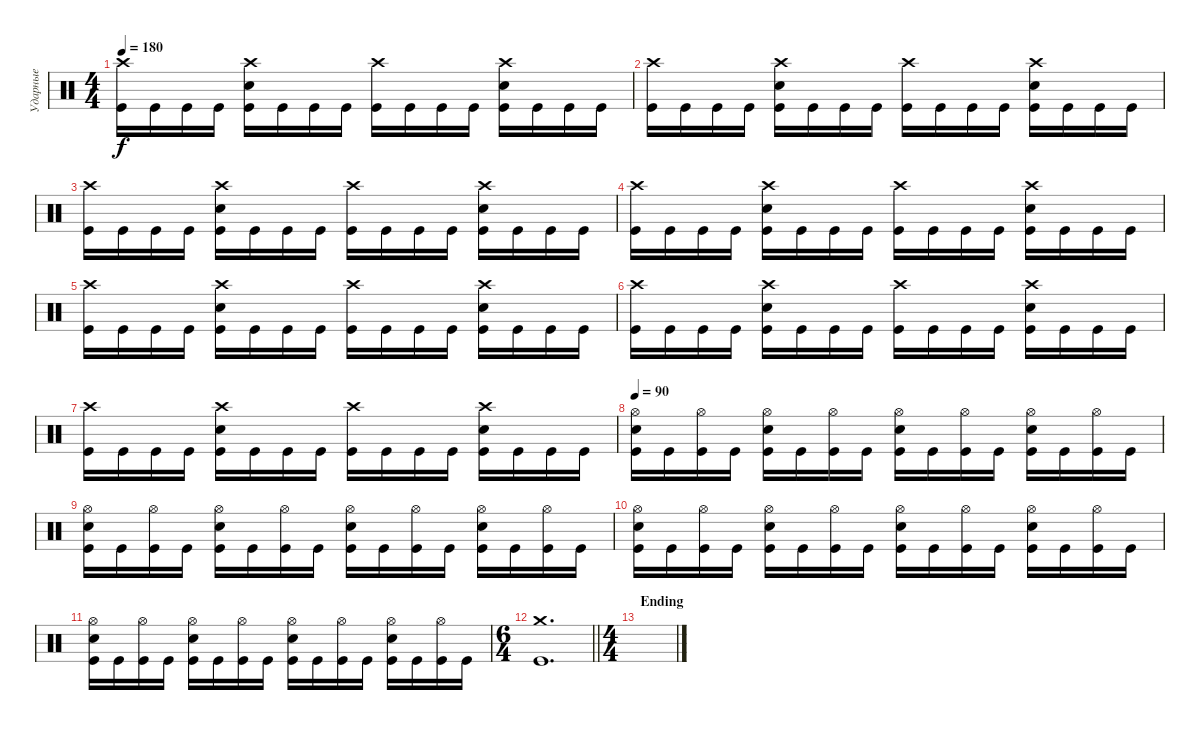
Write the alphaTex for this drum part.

\track ("Ударные" "Ударные") {instrument percussion}
\staff {score}
\articulation defaults
\ts (4 4)
\tempo 180
\clef neutral
\ks c
("Crash high (hit)" "Kick (hit)").16{dy f} "Kick (hit)".16 "Kick (hit)".16 "Kick (hit)".16 ("Crash high (hit)" "Electric Snare (hit)" "Kick (hit)").16 "Kick (hit)".16 "Kick (hit)".16 "Kick (hit)".16 ("Crash high (hit)" "Kick (hit)").16 "Kick (hit)".16 "Kick (hit)".16 "Kick (hit)".16 ("Crash high (hit)" "Electric Snare (hit)" "Kick (hit)").16 "Kick (hit)".16 "Kick (hit)".16 "Kick (hit)".16 |
("Crash high (hit)" "Kick (hit)").16 "Kick (hit)".16 "Kick (hit)".16 "Kick (hit)".16 ("Crash high (hit)" "Electric Snare (hit)" "Kick (hit)").16 "Kick (hit)".16 "Kick (hit)".16 "Kick (hit)".16 ("Crash high (hit)" "Kick (hit)").16 "Kick (hit)".16 "Kick (hit)".16 "Kick (hit)".16 ("Crash high (hit)" "Electric Snare (hit)" "Kick (hit)").16 "Kick (hit)".16 "Kick (hit)".16 "Kick (hit)".16 |
("Crash high (hit)" "Kick (hit)").16 "Kick (hit)".16 "Kick (hit)".16 "Kick (hit)".16 ("Crash high (hit)" "Electric Snare (hit)" "Kick (hit)").16 "Kick (hit)".16 "Kick (hit)".16 "Kick (hit)".16 ("Crash high (hit)" "Kick (hit)").16 "Kick (hit)".16 "Kick (hit)".16 "Kick (hit)".16 ("Crash high (hit)" "Electric Snare (hit)" "Kick (hit)").16 "Kick (hit)".16 "Kick (hit)".16 "Kick (hit)".16 |
("Crash high (hit)" "Kick (hit)").16 "Kick (hit)".16 "Kick (hit)".16 "Kick (hit)".16 ("Crash high (hit)" "Electric Snare (hit)" "Kick (hit)").16 "Kick (hit)".16 "Kick (hit)".16 "Kick (hit)".16 ("Crash high (hit)" "Kick (hit)").16 "Kick (hit)".16 "Kick (hit)".16 "Kick (hit)".16 ("Crash high (hit)" "Electric Snare (hit)" "Kick (hit)").16 "Kick (hit)".16 "Kick (hit)".16 "Kick (hit)".16 |
("Crash high (hit)" "Kick (hit)").16 "Kick (hit)".16 "Kick (hit)".16 "Kick (hit)".16 ("Crash high (hit)" "Electric Snare (hit)" "Kick (hit)").16 "Kick (hit)".16 "Kick (hit)".16 "Kick (hit)".16 ("Crash high (hit)" "Kick (hit)").16 "Kick (hit)".16 "Kick (hit)".16 "Kick (hit)".16 ("Crash high (hit)" "Electric Snare (hit)" "Kick (hit)").16 "Kick (hit)".16 "Kick (hit)".16 "Kick (hit)".16 |
("Crash high (hit)" "Kick (hit)").16 "Kick (hit)".16 "Kick (hit)".16 "Kick (hit)".16 ("Crash high (hit)" "Electric Snare (hit)" "Kick (hit)").16 "Kick (hit)".16 "Kick (hit)".16 "Kick (hit)".16 ("Crash high (hit)" "Kick (hit)").16 "Kick (hit)".16 "Kick (hit)".16 "Kick (hit)".16 ("Crash high (hit)" "Electric Snare (hit)" "Kick (hit)").16 "Kick (hit)".16 "Kick (hit)".16 "Kick (hit)".16 |
("Crash high (hit)" "Kick (hit)").16 "Kick (hit)".16 "Kick (hit)".16 "Kick (hit)".16 ("Crash high (hit)" "Electric Snare (hit)" "Kick (hit)").16 "Kick (hit)".16 "Kick (hit)".16 "Kick (hit)".16 ("Crash high (hit)" "Kick (hit)").16 "Kick (hit)".16 "Kick (hit)".16 "Kick (hit)".16 ("Crash high (hit)" "Electric Snare (hit)" "Kick (hit)").16 "Kick (hit)".16 "Kick (hit)".16 "Kick (hit)".16 |
\tempo 90
("Hi-Hat (open)" "Electric Snare (hit)" "Kick (hit)").16 "Kick (hit)".16 ("Hi-Hat (open)" "Kick (hit)").16 "Kick (hit)".16 ("Hi-Hat (open)" "Electric Snare (hit)" "Kick (hit)").16 "Kick (hit)".16 ("Hi-Hat (open)" "Kick (hit)").16 "Kick (hit)".16 ("Hi-Hat (open)" "Electric Snare (hit)" "Kick (hit)").16 "Kick (hit)".16 ("Hi-Hat (open)" "Kick (hit)").16 "Kick (hit)".16 ("Hi-Hat (open)" "Electric Snare (hit)" "Kick (hit)").16 "Kick (hit)".16 ("Hi-Hat (open)" "Kick (hit)").16 "Kick (hit)".16 |
("Hi-Hat (open)" "Electric Snare (hit)" "Kick (hit)").16 "Kick (hit)".16 ("Hi-Hat (open)" "Kick (hit)").16 "Kick (hit)".16 ("Hi-Hat (open)" "Electric Snare (hit)" "Kick (hit)").16 "Kick (hit)".16 ("Hi-Hat (open)" "Kick (hit)").16 "Kick (hit)".16 ("Hi-Hat (open)" "Electric Snare (hit)" "Kick (hit)").16 "Kick (hit)".16 ("Hi-Hat (open)" "Kick (hit)").16 "Kick (hit)".16 ("Hi-Hat (open)" "Electric Snare (hit)" "Kick (hit)").16 "Kick (hit)".16 ("Hi-Hat (open)" "Kick (hit)").16 "Kick (hit)".16 |
("Hi-Hat (open)" "Electric Snare (hit)" "Kick (hit)").16 "Kick (hit)".16 ("Hi-Hat (open)" "Kick (hit)").16 "Kick (hit)".16 ("Hi-Hat (open)" "Electric Snare (hit)" "Kick (hit)").16 "Kick (hit)".16 ("Hi-Hat (open)" "Kick (hit)").16 "Kick (hit)".16 ("Hi-Hat (open)" "Electric Snare (hit)" "Kick (hit)").16 "Kick (hit)".16 ("Hi-Hat (open)" "Kick (hit)").16 "Kick (hit)".16 ("Hi-Hat (open)" "Electric Snare (hit)" "Kick (hit)").16 "Kick (hit)".16 ("Hi-Hat (open)" "Kick (hit)").16 "Kick (hit)".16 |
("Hi-Hat (open)" "Electric Snare (hit)" "Kick (hit)").16 "Kick (hit)".16 ("Hi-Hat (open)" "Kick (hit)").16 "Kick (hit)".16 ("Hi-Hat (open)" "Electric Snare (hit)" "Kick (hit)").16 "Kick (hit)".16 ("Hi-Hat (open)" "Kick (hit)").16 "Kick (hit)".16 ("Hi-Hat (open)" "Electric Snare (hit)" "Kick (hit)").16 "Kick (hit)".16 ("Hi-Hat (open)" "Kick (hit)").16 "Kick (hit)".16 ("Hi-Hat (open)" "Electric Snare (hit)" "Kick (hit)").16 "Kick (hit)".16 ("Hi-Hat (open)" "Kick (hit)").16 "Kick (hit)".16 |
\ts (6 4)
\barLineRight lightlight
("Crash medium (hit)" "Kick (hit)").1{d} |
\ts (4 4)
\section ("" "Ending")
